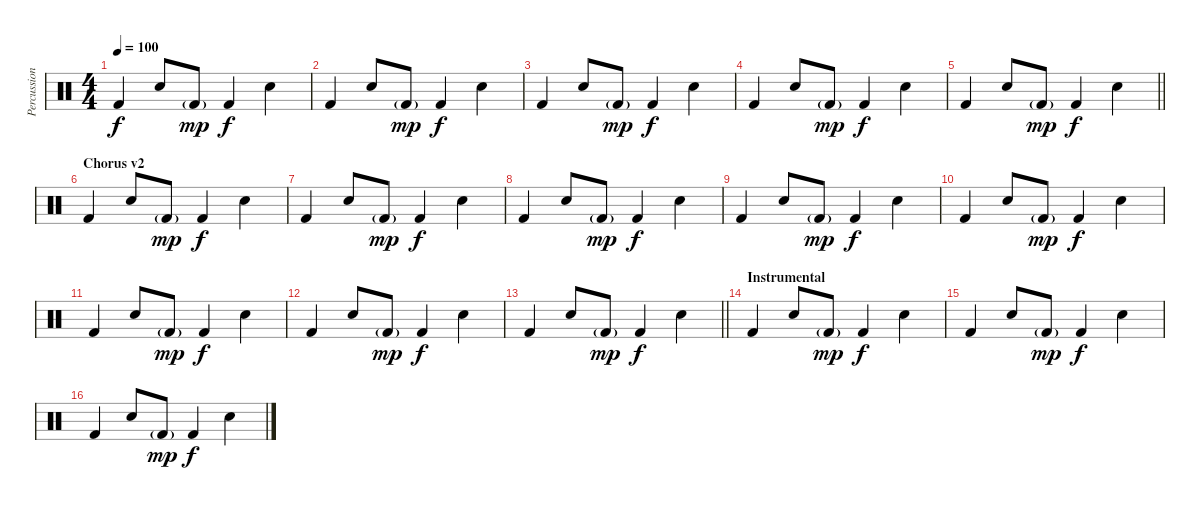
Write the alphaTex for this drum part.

\track ("Percussion" "Percussion") {instrument percussion}
\staff {score}
\articulation defaults
\ts (4 4)
\tempo 100
\clef neutral
\ks c "Kick (hit) 2".4{dy f} "Snare (hit) 2".8 "Kick (hit) 2"{g}.8{dy mp} "Kick (hit) 2".4{dy f} "Snare (hit) 2".4
|
"Kick (hit) 2".4 "Snare (hit) 2".8 "Kick (hit) 2"{g}.8{dy mp} "Kick (hit) 2".4{dy f} "Snare (hit) 2".4 |
"Kick (hit) 2".4 "Snare (hit) 2".8 "Kick (hit) 2"{g}.8{dy mp} "Kick (hit) 2".4{dy f} "Snare (hit) 2".4 |
"Kick (hit) 2".4 "Snare (hit) 2".8 "Kick (hit) 2"{g}.8{dy mp} "Kick (hit) 2".4{dy f} "Snare (hit) 2".4 |
\barLineRight lightlight "Kick (hit) 2".4 "Snare (hit) 2".8 "Kick (hit) 2"{g}.8{dy mp} "Kick (hit) 2".4{dy f} "Snare (hit) 2".4
|
\section ("" "Chorus v2")
"Kick (hit) 2".4 "Snare (hit) 2".8 "Kick (hit) 2"{g}.8{dy mp} "Kick (hit) 2".4{dy f} "Snare (hit) 2".4 |
"Kick (hit) 2".4 "Snare (hit) 2".8 "Kick (hit) 2"{g}.8{dy mp} "Kick (hit) 2".4{dy f} "Snare (hit) 2".4 |
"Kick (hit) 2".4 "Snare (hit) 2".8 "Kick (hit) 2"{g}.8{dy mp} "Kick (hit) 2".4{dy f} "Snare (hit) 2".4 |
"Kick (hit) 2".4 "Snare (hit) 2".8 "Kick (hit) 2"{g}.8{dy mp} "Kick (hit) 2".4{dy f} "Snare (hit) 2".4 |
"Kick (hit) 2".4 "Snare (hit) 2".8 "Kick (hit) 2"{g}.8{dy mp} "Kick (hit) 2".4{dy f} "Snare (hit) 2".4 |
"Kick (hit) 2".4 "Snare (hit) 2".8 "Kick (hit) 2"{g}.8{dy mp} "Kick (hit) 2".4{dy f} "Snare (hit) 2".4 |
"Kick (hit) 2".4 "Snare (hit) 2".8 "Kick (hit) 2"{g}.8{dy mp} "Kick (hit) 2".4{dy f} "Snare (hit) 2".4 |
\barLineRight lightlight "Kick (hit) 2".4 "Snare (hit) 2".8 "Kick (hit) 2"{g}.8{dy mp} "Kick (hit) 2".4{dy f} "Snare (hit) 2".4
|
\section ("" "Instrumental")
"Kick (hit) 2".4 "Snare (hit) 2".8 "Kick (hit) 2"{g}.8{dy mp} "Kick (hit) 2".4{dy f} "Snare (hit) 2".4 |
"Kick (hit) 2".4 "Snare (hit) 2".8 "Kick (hit) 2"{g}.8{dy mp} "Kick (hit) 2".4{dy f} "Snare (hit) 2".4 |
"Kick (hit) 2".4 "Snare (hit) 2".8 "Kick (hit) 2"{g}.8{dy mp} "Kick (hit) 2".4{dy f} "Snare (hit) 2".4
